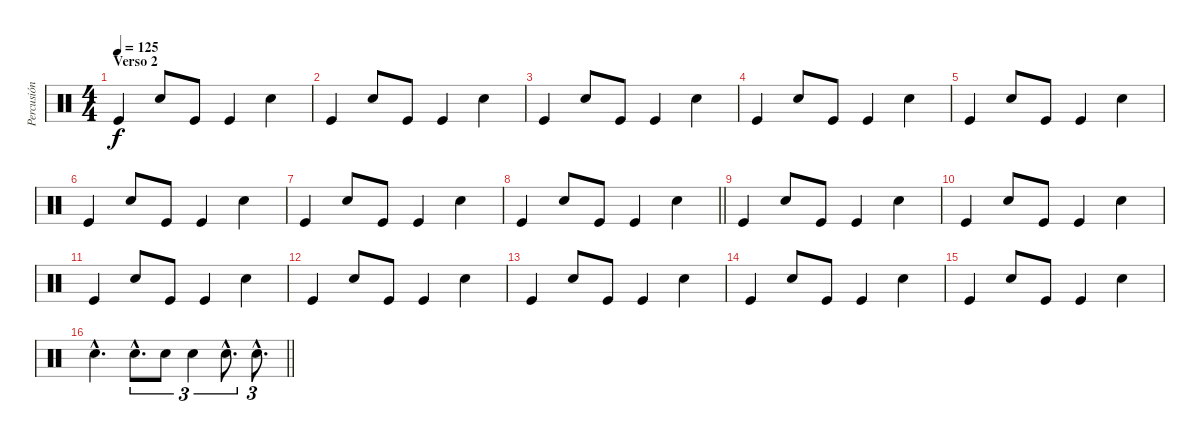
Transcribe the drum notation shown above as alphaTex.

\track ("Percusión" "Percusión") {instrument percussion}
\staff {score}
\articulation defaults
\ts (4 4)
\section ("" "Verso 2")
\tempo 125
\clef neutral
\ks c "Kick (hit)".4{dy f} "Snare (hit) 2".8 "Kick (hit)".8 "Kick (hit)".4 "Snare (hit) 2".4
|
"Kick (hit)".4 "Snare (hit) 2".8 "Kick (hit)".8 "Kick (hit)".4 "Snare (hit) 2".4 |
"Kick (hit)".4 "Snare (hit) 2".8 "Kick (hit)".8 "Kick (hit)".4 "Snare (hit) 2".4 |
"Kick (hit)".4 "Snare (hit) 2".8 "Kick (hit)".8 "Kick (hit)".4 "Snare (hit) 2".4 |
"Kick (hit)".4 "Snare (hit) 2".8 "Kick (hit)".8 "Kick (hit)".4 "Snare (hit) 2".4 |
"Kick (hit)".4 "Snare (hit) 2".8 "Kick (hit)".8 "Kick (hit)".4 "Snare (hit) 2".4 |
"Kick (hit)".4 "Snare (hit) 2".8 "Kick (hit)".8 "Kick (hit)".4 "Snare (hit) 2".4 |
\barLineRight lightlight "Kick (hit)".4 "Snare (hit) 2".8 "Kick (hit)".8 "Kick (hit)".4 "Snare (hit) 2".4
|
"Kick (hit)".4 "Snare (hit) 2".8 "Kick (hit)".8 "Kick (hit)".4 "Snare (hit) 2".4 |
"Kick (hit)".4 "Snare (hit) 2".8 "Kick (hit)".8 "Kick (hit)".4 "Snare (hit) 2".4 |
"Kick (hit)".4 "Snare (hit) 2".8 "Kick (hit)".8 "Kick (hit)".4 "Snare (hit) 2".4 |
"Kick (hit)".4 "Snare (hit) 2".8 "Kick (hit)".8 "Kick (hit)".4 "Snare (hit) 2".4 |
"Kick (hit)".4 "Snare (hit) 2".8 "Kick (hit)".8 "Kick (hit)".4 "Snare (hit) 2".4 |
"Kick (hit)".4 "Snare (hit) 2".8 "Kick (hit)".8 "Kick (hit)".4 "Snare (hit) 2".4 |
"Kick (hit)".4 "Snare (hit) 2".8 "Kick (hit)".8 "Kick (hit)".4 "Snare (hit) 2".4 |
\barLineRight lightlight "Snare (hit) 2"{hac}.4{d} "Snare (hit) 2"{hac}.8{d tu (3 2)} "Snare (hit) 2".8{tu (3 2)} "Snare (hit) 2".4{tu (3 2)} "Snare (hit) 2"{hac}.8{d tu (3 2)} "Snare (hit) 2"{hac}.8{d tu (3 2)}
